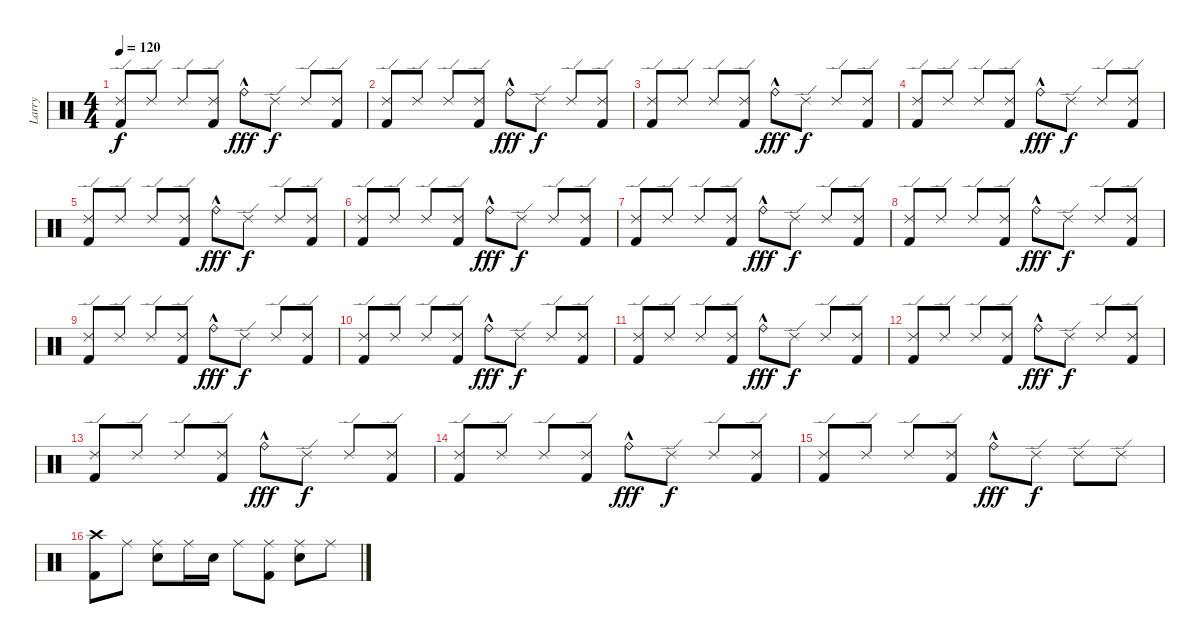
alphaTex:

\track ("Larry" "Larry") {instrument percussion}
\staff {score}
\articulation defaults
\ts (4 4)
\tempo 120
\clef neutral
\ks c
("Ride (edge) 2" "Kick (hit) 2").8{dy f} "Ride (edge) 2".8 "Ride (edge) 2".8 ("Ride (edge) 2" "Kick (hit) 2").8 "Ride (bell)"{hac}.8{dy fff} "Ride (edge) 2".8{dy f} "Ride (edge) 2".8 ("Ride (edge) 2" "Kick (hit) 2").8 |
("Ride (edge) 2" "Kick (hit) 2").8 "Ride (edge) 2".8 "Ride (edge) 2".8 ("Ride (edge) 2" "Kick (hit) 2").8 "Ride (bell)"{hac}.8{dy fff} "Ride (edge) 2".8{dy f} "Ride (edge) 2".8 ("Ride (edge) 2" "Kick (hit) 2").8 |
("Ride (edge) 2" "Kick (hit) 2").8 "Ride (edge) 2".8 "Ride (edge) 2".8 ("Ride (edge) 2" "Kick (hit) 2").8 "Ride (bell)"{hac}.8{dy fff} "Ride (edge) 2".8{dy f} "Ride (edge) 2".8 ("Ride (edge) 2" "Kick (hit) 2").8 |
("Ride (edge) 2" "Kick (hit) 2").8 "Ride (edge) 2".8 "Ride (edge) 2".8 ("Ride (edge) 2" "Kick (hit) 2").8 "Ride (bell)"{hac}.8{dy fff} "Ride (edge) 2".8{dy f} "Ride (edge) 2".8 ("Ride (edge) 2" "Kick (hit) 2").8 |
("Ride (edge) 2" "Kick (hit) 2").8 "Ride (edge) 2".8 "Ride (edge) 2".8 ("Ride (edge) 2" "Kick (hit) 2").8 "Ride (bell)"{hac}.8{dy fff} "Ride (edge) 2".8{dy f} "Ride (edge) 2".8 ("Ride (edge) 2" "Kick (hit) 2").8 |
("Ride (edge) 2" "Kick (hit) 2").8 "Ride (edge) 2".8 "Ride (edge) 2".8 ("Ride (edge) 2" "Kick (hit) 2").8 "Ride (bell)"{hac}.8{dy fff} "Ride (edge) 2".8{dy f} "Ride (edge) 2".8 ("Ride (edge) 2" "Kick (hit) 2").8 |
("Ride (edge) 2" "Kick (hit) 2").8 "Ride (edge) 2".8 "Ride (edge) 2".8 ("Ride (edge) 2" "Kick (hit) 2").8 "Ride (bell)"{hac}.8{dy fff} "Ride (edge) 2".8{dy f} "Ride (edge) 2".8 ("Ride (edge) 2" "Kick (hit) 2").8 |
("Ride (edge) 2" "Kick (hit) 2").8 "Ride (edge) 2".8 "Ride (edge) 2".8 ("Ride (edge) 2" "Kick (hit) 2").8 "Ride (bell)"{hac}.8{dy fff} "Ride (edge) 2".8{dy f} "Ride (edge) 2".8 ("Ride (edge) 2" "Kick (hit) 2").8 |
("Ride (edge) 2" "Kick (hit) 2").8 "Ride (edge) 2".8 "Ride (edge) 2".8 ("Ride (edge) 2" "Kick (hit) 2").8 "Ride (bell)"{hac}.8{dy fff} "Ride (edge) 2".8{dy f} "Ride (edge) 2".8 ("Ride (edge) 2" "Kick (hit) 2").8 |
("Ride (edge) 2" "Kick (hit) 2").8 "Ride (edge) 2".8 "Ride (edge) 2".8 ("Ride (edge) 2" "Kick (hit) 2").8 "Ride (bell)"{hac}.8{dy fff} "Ride (edge) 2".8{dy f} "Ride (edge) 2".8 ("Ride (edge) 2" "Kick (hit) 2").8 |
("Ride (edge) 2" "Kick (hit) 2").8 "Ride (edge) 2".8 "Ride (edge) 2".8 ("Ride (edge) 2" "Kick (hit) 2").8 "Ride (bell)"{hac}.8{dy fff} "Ride (edge) 2".8{dy f} "Ride (edge) 2".8 ("Ride (edge) 2" "Kick (hit) 2").8 |
("Ride (edge) 2" "Kick (hit) 2").8 "Ride (edge) 2".8 "Ride (edge) 2".8 ("Ride (edge) 2" "Kick (hit) 2").8 "Ride (bell)"{hac}.8{dy fff} "Ride (edge) 2".8{dy f} "Ride (edge) 2".8 ("Ride (edge) 2" "Kick (hit) 2").8 |
("Ride (edge) 2" "Kick (hit) 2").8 "Ride (edge) 2".8 "Ride (edge) 2".8 ("Ride (edge) 2" "Kick (hit) 2").8 "Ride (bell)"{hac}.8{dy fff} "Ride (edge) 2".8{dy f} "Ride (edge) 2".8 ("Ride (edge) 2" "Kick (hit) 2").8 |
("Ride (edge) 2" "Kick (hit) 2").8 "Ride (edge) 2".8 "Ride (edge) 2".8 ("Ride (edge) 2" "Kick (hit) 2").8 "Ride (bell)"{hac}.8{dy fff} "Ride (edge) 2".8{dy f} "Ride (edge) 2".8 ("Ride (edge) 2" "Kick (hit) 2").8 |
("Ride (edge) 2" "Kick (hit) 2").8 "Ride (edge) 2".8 "Ride (edge) 2".8 ("Ride (edge) 2" "Kick (hit) 2").8 "Ride (bell)"{hac}.8{dy fff} "Ride (edge) 2".8{dy f} "Ride (edge) 2".8 "Ride (edge) 2".8 |
("Crash high (hit)" "Kick (hit) 2").8 "Ride (middle)".8 ("Ride (middle)" "Snare (hit) 2").8 "Ride (middle)".16 "Snare (hit) 2".16 "Ride (middle)".8 ("Ride (middle)" "Kick (hit) 2").8 ("Ride (middle)" "Snare (hit) 2").8 "Ride (middle)".8
